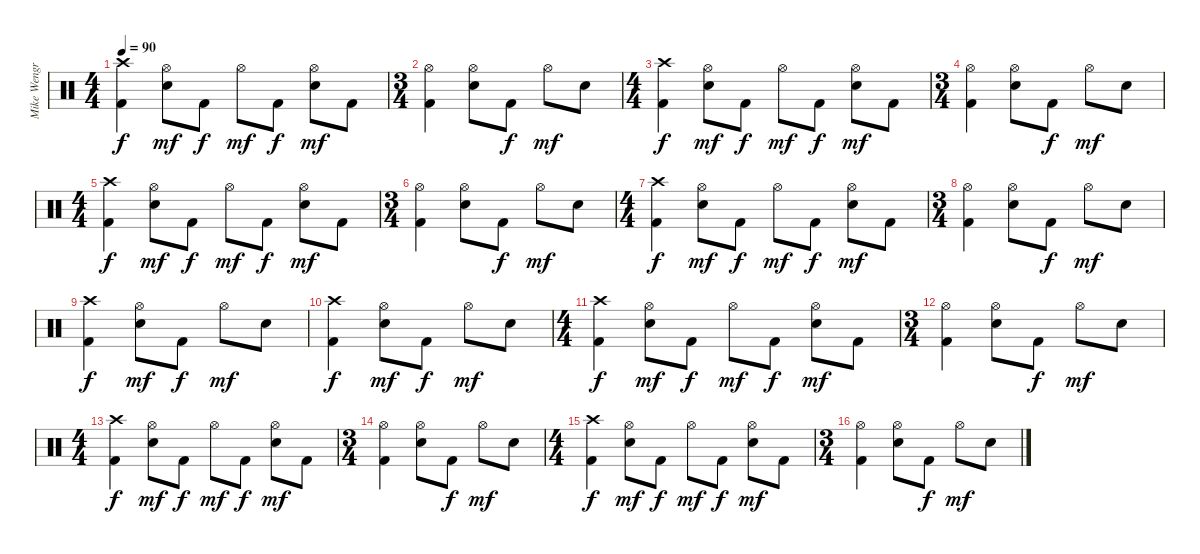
\track ("Mike Wengren - Drums" "Mike Wengr") {instrument percussion}
\staff {score}
\articulation defaults
\ts (4 4)
\tempo 90
\clef neutral
\ks c
("Crash high (hit)" "Kick (hit) 2").4{dy f} ("Hi-Hat (open)" "Electric Snare (hit)").8{dy mf} "Kick (hit) 2".8{dy f} "Hi-Hat (open)".8{dy mf} "Kick (hit) 2".8{dy f} ("Hi-Hat (open)" "Electric Snare (hit)").8{dy mf} "Kick (hit) 2".8 |
\ts (3 4)
("Hi-Hat (open)" "Kick (hit) 2").4 ("Hi-Hat (open)" "Electric Snare (hit)").8 "Kick (hit) 2".8{dy f} "Hi-Hat (open)".8{dy mf} "Electric Snare (hit)".8 |
\ts (4 4)
("Crash high (hit)" "Kick (hit) 2").4{dy f} ("Hi-Hat (open)" "Electric Snare (hit)").8{dy mf} "Kick (hit) 2".8{dy f} "Hi-Hat (open)".8{dy mf} "Kick (hit) 2".8{dy f} ("Hi-Hat (open)" "Electric Snare (hit)").8{dy mf} "Kick (hit) 2".8 |
\ts (3 4)
("Hi-Hat (open)" "Kick (hit) 2").4 ("Hi-Hat (open)" "Electric Snare (hit)").8 "Kick (hit) 2".8{dy f} "Hi-Hat (open)".8{dy mf} "Electric Snare (hit)".8 |
\ts (4 4)
("Crash high (hit)" "Kick (hit) 2").4{dy f} ("Hi-Hat (open)" "Electric Snare (hit)").8{dy mf} "Kick (hit) 2".8{dy f} "Hi-Hat (open)".8{dy mf} "Kick (hit) 2".8{dy f} ("Hi-Hat (open)" "Electric Snare (hit)").8{dy mf} "Kick (hit) 2".8 |
\ts (3 4)
("Hi-Hat (open)" "Kick (hit) 2").4 ("Hi-Hat (open)" "Electric Snare (hit)").8 "Kick (hit) 2".8{dy f} "Hi-Hat (open)".8{dy mf} "Electric Snare (hit)".8 |
\ts (4 4)
("Crash high (hit)" "Kick (hit) 2").4{dy f} ("Hi-Hat (open)" "Electric Snare (hit)").8{dy mf} "Kick (hit) 2".8{dy f} "Hi-Hat (open)".8{dy mf} "Kick (hit) 2".8{dy f} ("Hi-Hat (open)" "Electric Snare (hit)").8{dy mf} "Kick (hit) 2".8 |
\ts (3 4)
("Hi-Hat (open)" "Kick (hit) 2").4 ("Hi-Hat (open)" "Electric Snare (hit)").8 "Kick (hit) 2".8{dy f} "Hi-Hat (open)".8{dy mf} "Electric Snare (hit)".8 |
("Crash high (hit)" "Kick (hit) 2").4{dy f} ("Hi-Hat (open)" "Electric Snare (hit)").8{dy mf} "Kick (hit) 2".8{dy f} "Hi-Hat (open)".8{dy mf} "Electric Snare (hit)".8 |
("Crash high (hit)" "Kick (hit) 2").4{dy f} ("Hi-Hat (open)" "Electric Snare (hit)").8{dy mf} "Kick (hit) 2".8{dy f} "Hi-Hat (open)".8{dy mf} "Electric Snare (hit)".8 |
\ts (4 4)
("Crash high (hit)" "Kick (hit) 2").4{dy f} ("Hi-Hat (open)" "Electric Snare (hit)").8{dy mf} "Kick (hit) 2".8{dy f} "Hi-Hat (open)".8{dy mf} "Kick (hit) 2".8{dy f} ("Hi-Hat (open)" "Electric Snare (hit)").8{dy mf} "Kick (hit) 2".8 |
\ts (3 4)
("Hi-Hat (open)" "Kick (hit) 2").4 ("Hi-Hat (open)" "Electric Snare (hit)").8 "Kick (hit) 2".8{dy f} "Hi-Hat (open)".8{dy mf} "Electric Snare (hit)".8 |
\ts (4 4)
("Crash high (hit)" "Kick (hit) 2").4{dy f} ("Hi-Hat (open)" "Electric Snare (hit)").8{dy mf} "Kick (hit) 2".8{dy f} "Hi-Hat (open)".8{dy mf} "Kick (hit) 2".8{dy f} ("Hi-Hat (open)" "Electric Snare (hit)").8{dy mf} "Kick (hit) 2".8 |
\ts (3 4)
("Hi-Hat (open)" "Kick (hit) 2").4 ("Hi-Hat (open)" "Electric Snare (hit)").8 "Kick (hit) 2".8{dy f} "Hi-Hat (open)".8{dy mf} "Electric Snare (hit)".8 |
\ts (4 4)
("Crash high (hit)" "Kick (hit) 2").4{dy f} ("Hi-Hat (open)" "Electric Snare (hit)").8{dy mf} "Kick (hit) 2".8{dy f} "Hi-Hat (open)".8{dy mf} "Kick (hit) 2".8{dy f} ("Hi-Hat (open)" "Electric Snare (hit)").8{dy mf} "Kick (hit) 2".8 |
\ts (3 4)
("Hi-Hat (open)" "Kick (hit) 2").4 ("Hi-Hat (open)" "Electric Snare (hit)").8 "Kick (hit) 2".8{dy f} "Hi-Hat (open)".8{dy mf} "Electric Snare (hit)".8
